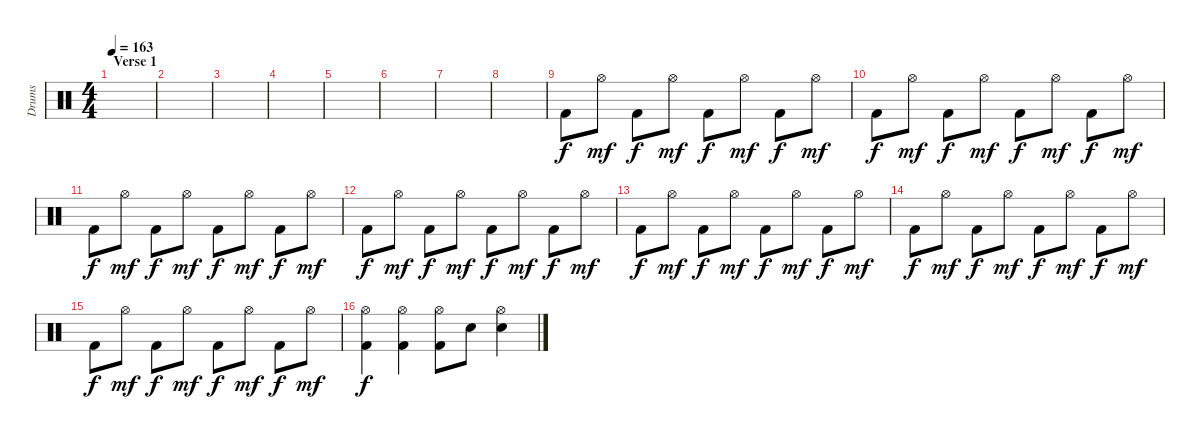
\track ("Drums" "Drums") {instrument percussion}
\staff {score}
\articulation defaults
\ts (4 4)
\section ("" "Verse 1")
\tempo 163
\clef neutral
\ks c
|
|
|
|
|
|
|
|
"Kick (hit) 2".8 "Hi-Hat (open)".8{dy mf} "Kick (hit) 2".8{dy f} "Hi-Hat (open)".8{dy mf} "Kick (hit) 2".8{dy f} "Hi-Hat (open)".8{dy mf} "Kick (hit) 2".8{dy f} "Hi-Hat (open)".8{dy mf} |
"Kick (hit) 2".8{dy f} "Hi-Hat (open)".8{dy mf} "Kick (hit) 2".8{dy f} "Hi-Hat (open)".8{dy mf} "Kick (hit) 2".8{dy f} "Hi-Hat (open)".8{dy mf} "Kick (hit) 2".8{dy f} "Hi-Hat (open)".8{dy mf} |
"Kick (hit) 2".8{dy f} "Hi-Hat (open)".8{dy mf} "Kick (hit) 2".8{dy f} "Hi-Hat (open)".8{dy mf} "Kick (hit) 2".8{dy f} "Hi-Hat (open)".8{dy mf} "Kick (hit) 2".8{dy f} "Hi-Hat (open)".8{dy mf} |
"Kick (hit) 2".8{dy f} "Hi-Hat (open)".8{dy mf} "Kick (hit) 2".8{dy f} "Hi-Hat (open)".8{dy mf} "Kick (hit) 2".8{dy f} "Hi-Hat (open)".8{dy mf} "Kick (hit) 2".8{dy f} "Hi-Hat (open)".8{dy mf} |
"Kick (hit) 2".8{dy f} "Hi-Hat (open)".8{dy mf} "Kick (hit) 2".8{dy f} "Hi-Hat (open)".8{dy mf} "Kick (hit) 2".8{dy f} "Hi-Hat (open)".8{dy mf} "Kick (hit) 2".8{dy f} "Hi-Hat (open)".8{dy mf} |
"Kick (hit) 2".8{dy f} "Hi-Hat (open)".8{dy mf} "Kick (hit) 2".8{dy f} "Hi-Hat (open)".8{dy mf} "Kick (hit) 2".8{dy f} "Hi-Hat (open)".8{dy mf} "Kick (hit) 2".8{dy f} "Hi-Hat (open)".8{dy mf} |
"Kick (hit) 2".8{dy f} "Hi-Hat (open)".8{dy mf} "Kick (hit) 2".8{dy f} "Hi-Hat (open)".8{dy mf} "Kick (hit) 2".8{dy f} "Hi-Hat (open)".8{dy mf} "Kick (hit) 2".8{dy f} "Hi-Hat (open)".8{dy mf} |
("Hi-Hat (open)" "Kick (hit) 2").4{dy f} ("Hi-Hat (open)" "Kick (hit) 2").4 ("Hi-Hat (open)" "Kick (hit) 2").8 "Electric Snare (hit)".8 ("Electric Snare (hit)" "Hi-Hat (open)").4
